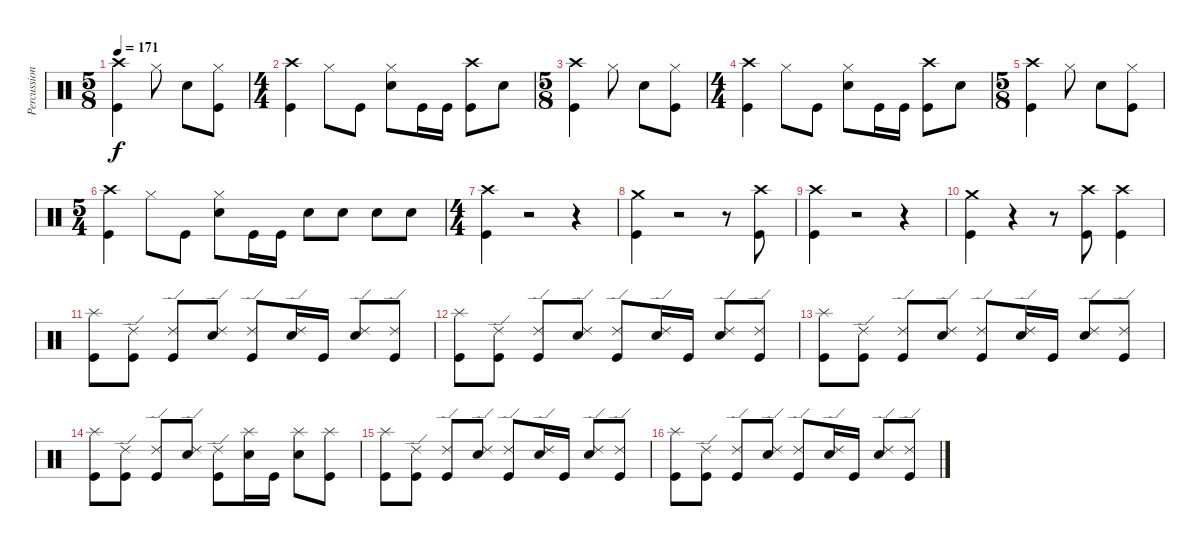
\track ("Percussions" "Percussion") {instrument percussion}
\staff {score}
\articulation defaults
\ts (5 8)
\tempo 171
\clef neutral
\ks c
("Crash high (hit)" "Kick (hit)").4{dy f} "Hi-Hat (closed)".8 "Snare (hit) 2".8 ("Hi-Hat (closed)" "Kick (hit)").8 |
\ts (4 4)
("Crash high (hit)" "Kick (hit)").4 "Hi-Hat (closed)".8 "Kick (hit)".8 ("Hi-Hat (closed)" "Snare (hit) 2").8 "Kick (hit)".16 "Kick (hit)".16 ("Crash high (hit)" "Kick (hit)").8 "Snare (hit) 2".8 |
\ts (5 8)
("Crash high (hit)" "Kick (hit)").4 "Hi-Hat (closed)".8 "Snare (hit) 2".8 ("Hi-Hat (closed)" "Kick (hit)").8 |
\ts (4 4)
("Crash high (hit)" "Kick (hit)").4 "Hi-Hat (closed)".8 "Kick (hit)".8 ("Hi-Hat (closed)" "Snare (hit) 2").8 "Kick (hit)".16 "Kick (hit)".16 ("Crash high (hit)" "Kick (hit)").8 "Snare (hit) 2".8 |
\ts (5 8)
("Crash high (hit)" "Kick (hit)").4 "Hi-Hat (closed)".8 "Snare (hit) 2".8 ("Hi-Hat (closed)" "Kick (hit)").8 |
\ts (5 4)
("Crash high (hit)" "Kick (hit)").4 "Hi-Hat (closed)".8 "Kick (hit)".8 ("Hi-Hat (closed)" "Snare (hit) 2").8 "Kick (hit)".16 "Kick (hit)".16 "Snare (hit) 2".8 "Snare (hit) 2".8 "Snare (hit) 2".8 "Snare (hit) 2".8 |
\ts (4 4)
("Crash high (hit)" "Kick (hit)").4 r.2 r.4 |
("Crash medium (hit)" "Kick (hit)").4 r.2 r.8 ("Crash high (hit)" "Kick (hit)").8 |
("Crash high (hit)" "Kick (hit)").4 r.2 r.4 |
("Crash medium (hit)" "Kick (hit)").4 r.4 r.8 ("Crash high (hit)" "Kick (hit)").8 ("Crash high (hit)" "Kick (hit)").4 |
("Splash (hit)" "Kick (hit)").8 ("Ride (edge) 2" "Kick (hit)").8 ("Ride (edge) 2" "Kick (hit)").8 ("Ride (edge) 2" "Snare (hit) 2").8 ("Ride (edge) 2" "Kick (hit)").8 ("Ride (edge) 2" "Snare (hit) 2").16 "Kick (hit)".16 ("Ride (edge) 2" "Snare (hit) 2").8 ("Ride (edge) 2" "Kick (hit)").8 |
("Splash (hit)" "Kick (hit)").8 ("Ride (edge) 2" "Kick (hit)").8 ("Ride (edge) 2" "Kick (hit)").8 ("Ride (edge) 2" "Snare (hit) 2").8 ("Ride (edge) 2" "Kick (hit)").8 ("Ride (edge) 2" "Snare (hit) 2").16 "Kick (hit)".16 ("Ride (edge) 2" "Snare (hit) 2").8 ("Ride (edge) 2" "Kick (hit)").8 |
("Splash (hit)" "Kick (hit)").8 ("Ride (edge) 2" "Kick (hit)").8 ("Ride (edge) 2" "Kick (hit)").8 ("Ride (edge) 2" "Snare (hit) 2").8 ("Ride (edge) 2" "Kick (hit)").8 ("Ride (edge) 2" "Snare (hit) 2").16 "Kick (hit)".16 ("Ride (edge) 2" "Snare (hit) 2").8 ("Ride (edge) 2" "Kick (hit)").8 |
("Splash (hit)" "Kick (hit)").8 ("Ride (edge) 2" "Kick (hit)").8 ("Ride (edge) 2" "Kick (hit)").8 ("Ride (edge) 2" "Snare (hit) 2").8 ("Ride (edge) 2" "Kick (hit)").8 ("Splash (hit)" "Snare (hit) 2").16 "Kick (hit)".16 ("Splash (hit)" "Snare (hit) 2").8 ("Splash (hit)" "Kick (hit)").8 |
("Splash (hit)" "Kick (hit)").8 ("Ride (edge) 2" "Kick (hit)").8 ("Ride (edge) 2" "Kick (hit)").8 ("Ride (edge) 2" "Snare (hit) 2").8 ("Ride (edge) 2" "Kick (hit)").8 ("Ride (edge) 2" "Snare (hit) 2").16 "Kick (hit)".16 ("Ride (edge) 2" "Snare (hit) 2").8 ("Ride (edge) 2" "Kick (hit)").8 |
("Splash (hit)" "Kick (hit)").8 ("Ride (edge) 2" "Kick (hit)").8 ("Ride (edge) 2" "Kick (hit)").8 ("Ride (edge) 2" "Snare (hit) 2").8 ("Ride (edge) 2" "Kick (hit)").8 ("Ride (edge) 2" "Snare (hit) 2").16 "Kick (hit)".16 ("Ride (edge) 2" "Snare (hit) 2").8 ("Ride (edge) 2" "Kick (hit)").8
